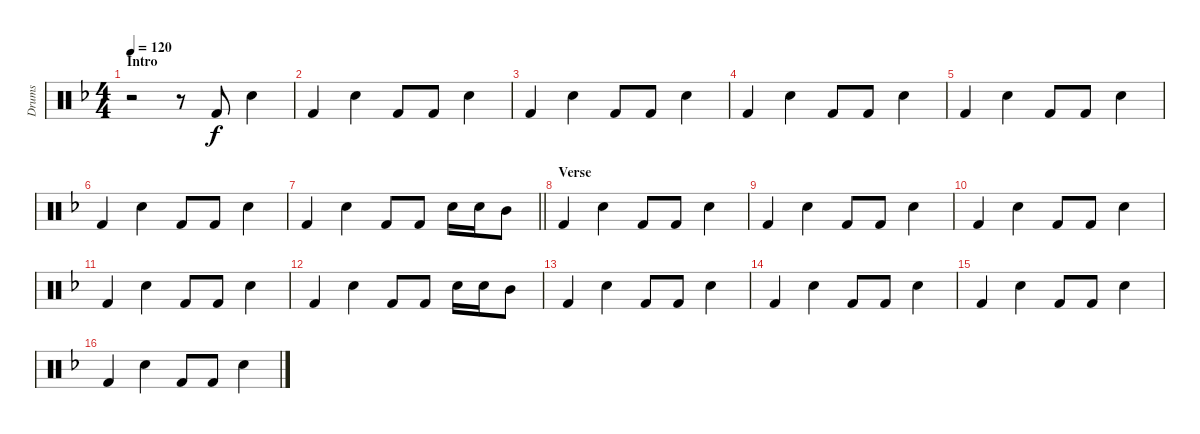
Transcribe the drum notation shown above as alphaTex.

\track ("Drums" "Drums") {instrument percussion}
\staff {score}
\articulation defaults
\ts (4 4)
\section ("" "Intro")
\tempo 120
\clef neutral
\ks f
r.2{dy f} r.8 "Kick (hit) 2".8 "Snare (hit) 2".4 |
"Kick (hit) 2".4 "Snare (hit) 2".4 "Kick (hit) 2".8 "Kick (hit) 2".8 "Snare (hit) 2".4 |
"Kick (hit) 2".4 "Snare (hit) 2".4 "Kick (hit) 2".8 "Kick (hit) 2".8 "Snare (hit) 2".4 |
"Kick (hit) 2".4 "Snare (hit) 2".4 "Kick (hit) 2".8 "Kick (hit) 2".8 "Snare (hit) 2".4 |
"Kick (hit) 2".4 "Snare (hit) 2".4 "Kick (hit) 2".8 "Kick (hit) 2".8 "Snare (hit) 2".4 |
"Kick (hit) 2".4 "Snare (hit) 2".4 "Kick (hit) 2".8 "Kick (hit) 2".8 "Snare (hit) 2".4 |
\barLineRight lightlight "Kick (hit) 2".4 "Snare (hit) 2".4 "Kick (hit) 2".8 "Kick (hit) 2".8 "Snare (hit) 2".16 "Snare (hit) 2".16 "Mid Tom (hit)".8
|
\section ("" "Verse")
"Kick (hit) 2".4 "Snare (hit) 2".4 "Kick (hit) 2".8 "Kick (hit) 2".8 "Snare (hit) 2".4 |
"Kick (hit) 2".4 "Snare (hit) 2".4 "Kick (hit) 2".8 "Kick (hit) 2".8 "Snare (hit) 2".4 |
"Kick (hit) 2".4 "Snare (hit) 2".4 "Kick (hit) 2".8 "Kick (hit) 2".8 "Snare (hit) 2".4 |
"Kick (hit) 2".4 "Snare (hit) 2".4 "Kick (hit) 2".8 "Kick (hit) 2".8 "Snare (hit) 2".4 |
"Kick (hit) 2".4 "Snare (hit) 2".4 "Kick (hit) 2".8 "Kick (hit) 2".8 "Snare (hit) 2".16 "Snare (hit) 2".16 "Mid Tom (hit)".8 |
"Kick (hit) 2".4 "Snare (hit) 2".4 "Kick (hit) 2".8 "Kick (hit) 2".8 "Snare (hit) 2".4 |
"Kick (hit) 2".4 "Snare (hit) 2".4 "Kick (hit) 2".8 "Kick (hit) 2".8 "Snare (hit) 2".4 |
"Kick (hit) 2".4 "Snare (hit) 2".4 "Kick (hit) 2".8 "Kick (hit) 2".8 "Snare (hit) 2".4 |
"Kick (hit) 2".4 "Snare (hit) 2".4 "Kick (hit) 2".8 "Kick (hit) 2".8 "Snare (hit) 2".4
